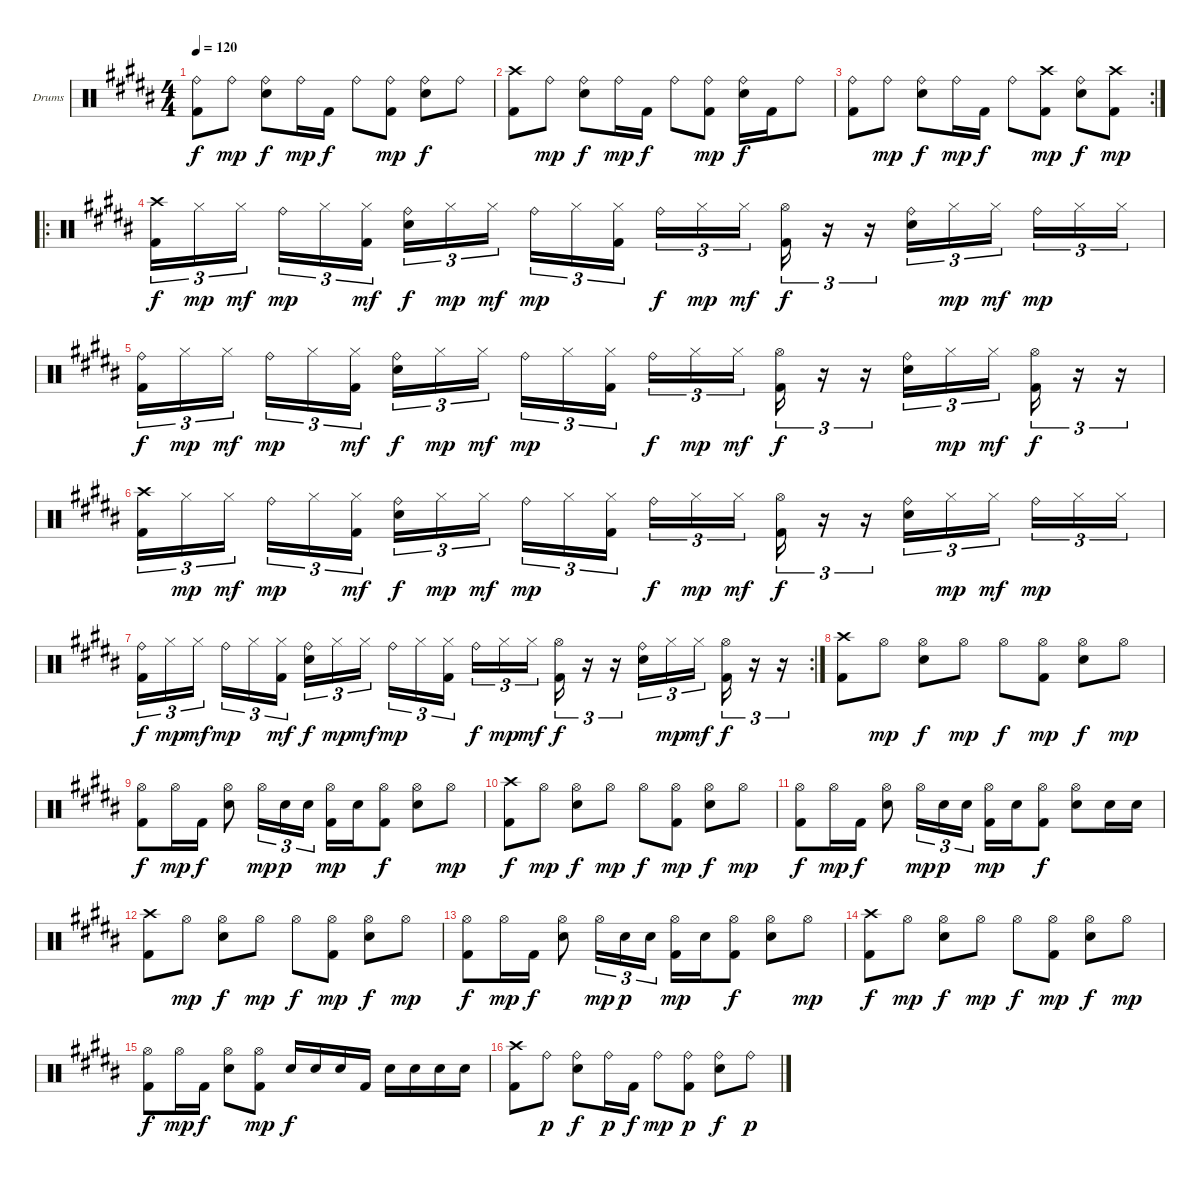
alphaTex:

\bracketExtendMode groupsimilarinstruments
\firstSystemTrackNameOrientation horizontal
\otherSystemsTrackNameOrientation horizontal
\track ("Drumkit" "Drums") {instrument percussion}
\staff {score}
\articulation defaults
\ts (4 4)
\tempo 120
\clef neutral
\ks g#minor
("Ride (bell)"{acc forcenatural} "Kick (hit) 2"{acc forcenatural}).8{dy f} "Ride (bell)"{acc forcenatural}.8{dy mp} ("Ride (bell)"{acc forcenatural} "Snare (hit) 2"{acc forcenatural}).8{dy f} "Ride (bell)"{acc forcenatural}.16{dy mp} "Kick (hit) 2"{acc forcenatural}.16{dy f} "Ride (bell)"{acc forcenatural}.8 ("Ride (bell)"{acc forcenatural} "Kick (hit) 2"{acc forcenatural}).8{dy mp} ("Ride (bell)"{acc forcenatural} "Snare (hit) 2"{acc forcenatural}).8{dy f} "Ride (bell)"{acc forcenatural}.8 |
("Crash high (hit)"{acc forcenatural} "Kick (hit) 2"{acc forcenatural}).8 "Ride (bell)"{acc forcenatural}.8{dy mp} ("Ride (bell)"{acc forcenatural} "Snare (hit) 2"{acc forcenatural}).8{dy f} "Ride (bell)"{acc forcenatural}.16{dy mp} "Kick (hit) 2"{acc forcenatural}.16{dy f} "Ride (bell)"{acc forcenatural}.8 ("Ride (bell)"{acc forcenatural} "Kick (hit) 2"{acc forcenatural}).8{dy mp} ("Ride (bell)"{acc forcenatural} "Snare (hit) 2"{acc forcenatural}).16{dy f} "Kick (hit) 2"{acc forcenatural}.16 "Ride (bell)"{acc forcenatural}.8 |
\rc 2
("Ride (bell)"{acc forcenatural} "Kick (hit) 2"{acc forcenatural}).8 "Ride (bell)"{acc forcenatural}.8{dy mp} ("Ride (bell)"{acc forcenatural} "Snare (hit) 2"{acc forcenatural}).8{dy f} "Ride (bell)"{acc forcenatural}.16{dy mp} "Kick (hit) 2"{acc forcenatural}.16{dy f} "Ride (bell)"{acc forcenatural}.8 ("Crash high (hit)"{acc forcenatural} "Kick (hit) 2"{acc forcenatural}).8{dy mp} ("Ride (bell)"{acc forcenatural} "Snare (hit) 2"{acc forcenatural}).8{dy f} ("Crash high (hit)"{acc forcenatural} "Kick (hit) 2"{acc forcenatural}).8{dy mp} |
\ro
("Crash high (hit)"{acc forcenatural} "Kick (hit) 2"{acc forcenatural}).16{tu (3 2) dy f} "Hi-Hat (closed)"{acc forcenatural}.16{tu (3 2) dy mp} "Hi-Hat (closed)"{acc forcenatural}.16{tu (3 2) dy mf} "Ride (bell)"{acc forcenatural}.16{tu (3 2) dy mp} "Hi-Hat (closed)"{acc forcenatural}.16{tu (3 2)} ("Hi-Hat (closed)"{acc forcenatural} "Kick (hit) 2"{acc forcenatural}).16{tu (3 2) dy mf} ("Ride (bell)"{acc forcenatural} "Snare (hit) 2"{acc forcenatural}).16{tu (3 2) dy f} "Hi-Hat (closed)"{acc forcenatural}.16{tu (3 2) dy mp} "Hi-Hat (closed)"{acc forcenatural}.16{tu (3 2) dy mf} "Ride (bell)"{acc forcenatural}.16{tu (3 2) dy mp} "Hi-Hat (closed)"{acc forcenatural}.16{tu (3 2)} ("Hi-Hat (closed)"{acc forcenatural} "Kick (hit) 2"{acc forcenatural}).16{tu (3 2)} "Ride (bell)"{acc forcenatural}.16{tu (3 2) dy f} "Hi-Hat (closed)"{acc forcenatural}.16{tu (3 2) dy mp} "Hi-Hat (closed)"{acc forcenatural}.16{tu (3 2) dy mf} ("Hi-Hat (open)"{acc forcenatural} "Kick (hit) 2"{acc forcenatural}).16{tu (3 2) dy f} r.16{tu (3 2)} r.16{tu (3 2)} ("Ride (bell)"{acc forcenatural} "Snare (hit) 2"{acc forcenatural}).16{tu (3 2)} "Hi-Hat (closed)"{acc forcenatural}.16{tu (3 2) dy mp} "Hi-Hat (closed)"{acc forcenatural}.16{tu (3 2) dy mf} "Ride (bell)"{acc forcenatural}.16{tu (3 2) dy mp} "Hi-Hat (closed)"{acc forcenatural}.16{tu (3 2)} "Hi-Hat (closed)"{acc forcenatural}.16{tu (3 2)} |
("Ride (bell)"{acc forcenatural} "Kick (hit) 2"{acc forcenatural}).16{tu (3 2) dy f} "Hi-Hat (closed)"{acc forcenatural}.16{tu (3 2) dy mp} "Hi-Hat (closed)"{acc forcenatural}.16{tu (3 2) dy mf} "Ride (bell)"{acc forcenatural}.16{tu (3 2) dy mp} "Hi-Hat (closed)"{acc forcenatural}.16{tu (3 2)} ("Hi-Hat (closed)"{acc forcenatural} "Kick (hit) 2"{acc forcenatural}).16{tu (3 2) dy mf} ("Ride (bell)"{acc forcenatural} "Snare (hit) 2"{acc forcenatural}).16{tu (3 2) dy f} "Hi-Hat (closed)"{acc forcenatural}.16{tu (3 2) dy mp} "Hi-Hat (closed)"{acc forcenatural}.16{tu (3 2) dy mf} "Ride (bell)"{acc forcenatural}.16{tu (3 2) dy mp} "Hi-Hat (closed)"{acc forcenatural}.16{tu (3 2)} ("Hi-Hat (closed)"{acc forcenatural} "Kick (hit) 2"{acc forcenatural}).16{tu (3 2)} "Ride (bell)"{acc forcenatural}.16{tu (3 2) dy f} "Hi-Hat (closed)"{acc forcenatural}.16{tu (3 2) dy mp} "Hi-Hat (closed)"{acc forcenatural}.16{tu (3 2) dy mf} ("Hi-Hat (open)"{acc forcenatural} "Kick (hit) 2"{acc forcenatural}).16{tu (3 2) dy f} r.16{tu (3 2)} r.16{tu (3 2)} ("Ride (bell)"{acc forcenatural} "Snare (hit) 2"{acc forcenatural}).16{tu (3 2)} "Hi-Hat (closed)"{acc forcenatural}.16{tu (3 2) dy mp} "Hi-Hat (closed)"{acc forcenatural}.16{tu (3 2) dy mf} ("Hi-Hat (open)"{acc forcenatural} "Kick (hit) 2"{acc forcenatural}).16{tu (3 2) dy f} r.16{tu (3 2)} r.16{tu (3 2)} |
("Crash high (hit)"{acc forcenatural} "Kick (hit) 2"{acc forcenatural}).16{tu (3 2)} "Hi-Hat (closed)"{acc forcenatural}.16{tu (3 2) dy mp} "Hi-Hat (closed)"{acc forcenatural}.16{tu (3 2) dy mf} "Ride (bell)"{acc forcenatural}.16{tu (3 2) dy mp} "Hi-Hat (closed)"{acc forcenatural}.16{tu (3 2)} ("Hi-Hat (closed)"{acc forcenatural} "Kick (hit) 2"{acc forcenatural}).16{tu (3 2) dy mf} ("Ride (bell)"{acc forcenatural} "Snare (hit) 2"{acc forcenatural}).16{tu (3 2) dy f} "Hi-Hat (closed)"{acc forcenatural}.16{tu (3 2) dy mp} "Hi-Hat (closed)"{acc forcenatural}.16{tu (3 2) dy mf} "Ride (bell)"{acc forcenatural}.16{tu (3 2) dy mp} "Hi-Hat (closed)"{acc forcenatural}.16{tu (3 2)} ("Hi-Hat (closed)"{acc forcenatural} "Kick (hit) 2"{acc forcenatural}).16{tu (3 2)} "Ride (bell)"{acc forcenatural}.16{tu (3 2) dy f} "Hi-Hat (closed)"{acc forcenatural}.16{tu (3 2) dy mp} "Hi-Hat (closed)"{acc forcenatural}.16{tu (3 2) dy mf} ("Hi-Hat (open)"{acc forcenatural} "Kick (hit) 2"{acc forcenatural}).16{tu (3 2) dy f} r.16{tu (3 2)} r.16{tu (3 2)} ("Ride (bell)"{acc forcenatural} "Snare (hit) 2"{acc forcenatural}).16{tu (3 2)} "Hi-Hat (closed)"{acc forcenatural}.16{tu (3 2) dy mp} "Hi-Hat (closed)"{acc forcenatural}.16{tu (3 2) dy mf} "Ride (bell)"{acc forcenatural}.16{tu (3 2) dy mp} "Hi-Hat (closed)"{acc forcenatural}.16{tu (3 2)} "Hi-Hat (closed)"{acc forcenatural}.16{tu (3 2)} |
\rc 2
("Ride (bell)"{acc forcenatural} "Kick (hit) 2"{acc forcenatural}).16{tu (3 2) dy f} "Hi-Hat (closed)"{acc forcenatural}.16{tu (3 2) dy mp} "Hi-Hat (closed)"{acc forcenatural}.16{tu (3 2) dy mf} "Ride (bell)"{acc forcenatural}.16{tu (3 2) dy mp} "Hi-Hat (closed)"{acc forcenatural}.16{tu (3 2)} ("Hi-Hat (closed)"{acc forcenatural} "Kick (hit) 2"{acc forcenatural}).16{tu (3 2) dy mf} ("Ride (bell)"{acc forcenatural} "Snare (hit) 2"{acc forcenatural}).16{tu (3 2) dy f} "Hi-Hat (closed)"{acc forcenatural}.16{tu (3 2) dy mp} "Hi-Hat (closed)"{acc forcenatural}.16{tu (3 2) dy mf} "Ride (bell)"{acc forcenatural}.16{tu (3 2) dy mp} "Hi-Hat (closed)"{acc forcenatural}.16{tu (3 2)} ("Hi-Hat (closed)"{acc forcenatural} "Kick (hit) 2"{acc forcenatural}).16{tu (3 2)} "Ride (bell)"{acc forcenatural}.16{tu (3 2) dy f} "Hi-Hat (closed)"{acc forcenatural}.16{tu (3 2) dy mp} "Hi-Hat (closed)"{acc forcenatural}.16{tu (3 2) dy mf} ("Hi-Hat (open)"{acc forcenatural} "Kick (hit) 2"{acc forcenatural}).16{tu (3 2) dy f} r.16{tu (3 2)} r.16{tu (3 2)} ("Ride (bell)"{acc forcenatural} "Snare (hit) 2"{acc forcenatural}).16{tu (3 2)} "Hi-Hat (closed)"{acc forcenatural}.16{tu (3 2) dy mp} "Hi-Hat (closed)"{acc forcenatural}.16{tu (3 2) dy mf} ("Hi-Hat (open)"{acc forcenatural} "Kick (hit) 2"{acc forcenatural}).16{tu (3 2) dy f} r.16{tu (3 2)} r.16{tu (3 2)} |
("Crash high (hit)"{acc forcenatural} "Kick (hit) 2"{acc forcenatural}).8 "Hi-Hat (open)"{acc forcenatural}.8{dy mp} ("Hi-Hat (open)"{acc forcenatural} "Snare (hit) 2"{acc forcenatural}).8{dy f} "Hi-Hat (open)"{acc forcenatural}.8{dy mp} "Hi-Hat (open)"{acc forcenatural}.8{dy f} ("Hi-Hat (open)"{acc forcenatural} "Kick (hit) 2"{acc forcenatural}).8{dy mp} ("Hi-Hat (open)"{acc forcenatural} "Snare (hit) 2"{acc forcenatural}).8{dy f} "Hi-Hat (open)"{acc forcenatural}.8{dy mp} |
("Hi-Hat (open)"{acc forcenatural} "Kick (hit) 2"{acc forcenatural}).8{dy f} "Hi-Hat (open)"{acc forcenatural}.16{dy mp} "Kick (hit) 2"{acc forcenatural}.16{dy f} ("Hi-Hat (open)"{acc forcenatural} "Snare (hit) 2"{acc forcenatural}).8 "Hi-Hat (open)"{acc forcenatural}.16{tu (3 2) dy mp} "Snare (hit) 2"{acc forcenatural}.16{tu (3 2) dy p} "Snare (hit) 2"{acc forcenatural}.16{tu (3 2)} ("Hi-Hat (open)"{acc forcenatural} "Kick (hit) 2"{acc forcenatural}).16{dy mp} "Snare (hit) 2"{acc forcenatural}.16 ("Hi-Hat (open)"{acc forcenatural} "Kick (hit) 2"{acc forcenatural}).8{dy f} ("Hi-Hat (open)"{acc forcenatural} "Snare (hit) 2"{acc forcenatural}).8 "Hi-Hat (open)"{acc forcenatural}.8{dy mp} |
("Crash high (hit)"{acc forcenatural} "Kick (hit) 2"{acc forcenatural}).8{dy f} "Hi-Hat (open)"{acc forcenatural}.8{dy mp} ("Hi-Hat (open)"{acc forcenatural} "Snare (hit) 2"{acc forcenatural}).8{dy f} "Hi-Hat (open)"{acc forcenatural}.8{dy mp} "Hi-Hat (open)"{acc forcenatural}.8{dy f} ("Hi-Hat (open)"{acc forcenatural} "Kick (hit) 2"{acc forcenatural}).8{dy mp} ("Hi-Hat (open)"{acc forcenatural} "Snare (hit) 2"{acc forcenatural}).8{dy f} "Hi-Hat (open)"{acc forcenatural}.8{dy mp} |
("Hi-Hat (open)"{acc forcenatural} "Kick (hit) 2"{acc forcenatural}).8{dy f} "Hi-Hat (open)"{acc forcenatural}.16{dy mp} "Kick (hit) 2"{acc forcenatural}.16{dy f} ("Hi-Hat (open)"{acc forcenatural} "Snare (hit) 2"{acc forcenatural}).8 "Hi-Hat (open)"{acc forcenatural}.16{tu (3 2) dy mp} "Snare (hit) 2"{acc forcenatural}.16{tu (3 2) dy p} "Snare (hit) 2"{acc forcenatural}.16{tu (3 2)} ("Hi-Hat (open)"{acc forcenatural} "Kick (hit) 2"{acc forcenatural}).16{dy mp} "Snare (hit) 2"{acc forcenatural}.16 ("Hi-Hat (open)"{acc forcenatural} "Kick (hit) 2"{acc forcenatural}).8{dy f} ("Hi-Hat (open)"{acc forcenatural} "Snare (hit) 2"{acc forcenatural}).8 "Snare (hit) 2"{acc forcenatural}.16 "Snare (hit) 2"{acc forcenatural}.16 |
("Crash high (hit)"{acc forcenatural} "Kick (hit) 2"{acc forcenatural}).8 "Hi-Hat (open)"{acc forcenatural}.8{dy mp} ("Hi-Hat (open)"{acc forcenatural} "Snare (hit) 2"{acc forcenatural}).8{dy f} "Hi-Hat (open)"{acc forcenatural}.8{dy mp} "Hi-Hat (open)"{acc forcenatural}.8{dy f} ("Hi-Hat (open)"{acc forcenatural} "Kick (hit) 2"{acc forcenatural}).8{dy mp} ("Hi-Hat (open)"{acc forcenatural} "Snare (hit) 2"{acc forcenatural}).8{dy f} "Hi-Hat (open)"{acc forcenatural}.8{dy mp} |
("Hi-Hat (open)"{acc forcenatural} "Kick (hit) 2"{acc forcenatural}).8{dy f} "Hi-Hat (open)"{acc forcenatural}.16{dy mp} "Kick (hit) 2"{acc forcenatural}.16{dy f} ("Hi-Hat (open)"{acc forcenatural} "Snare (hit) 2"{acc forcenatural}).8 "Hi-Hat (open)"{acc forcenatural}.16{tu (3 2) dy mp} "Snare (hit) 2"{acc forcenatural}.16{tu (3 2) dy p} "Snare (hit) 2"{acc forcenatural}.16{tu (3 2)} ("Hi-Hat (open)"{acc forcenatural} "Kick (hit) 2"{acc forcenatural}).16{dy mp} "Snare (hit) 2"{acc forcenatural}.16 ("Hi-Hat (open)"{acc forcenatural} "Kick (hit) 2"{acc forcenatural}).8{dy f} ("Hi-Hat (open)"{acc forcenatural} "Snare (hit) 2"{acc forcenatural}).8 "Hi-Hat (open)"{acc forcenatural}.8{dy mp} |
("Crash high (hit)"{acc forcenatural} "Kick (hit) 2"{acc forcenatural}).8{dy f} "Hi-Hat (open)"{acc forcenatural}.8{dy mp} ("Hi-Hat (open)"{acc forcenatural} "Snare (hit) 2"{acc forcenatural}).8{dy f} "Hi-Hat (open)"{acc forcenatural}.8{dy mp} "Hi-Hat (open)"{acc forcenatural}.8{dy f} ("Hi-Hat (open)"{acc forcenatural} "Kick (hit) 2"{acc forcenatural}).8{dy mp} ("Hi-Hat (open)"{acc forcenatural} "Snare (hit) 2"{acc forcenatural}).8{dy f} "Hi-Hat (open)"{acc forcenatural}.8{dy mp} |
("Hi-Hat (open)"{acc forcenatural} "Kick (hit) 2"{acc forcenatural}).8{dy f} "Hi-Hat (open)"{acc forcenatural}.16{dy mp} "Kick (hit) 2"{acc forcenatural}.16{dy f} ("Hi-Hat (open)"{acc forcenatural} "Snare (hit) 2"{acc forcenatural}).8 ("Hi-Hat (open)"{acc forcenatural} "Kick (hit) 2"{acc forcenatural}).8{dy mp} "Snare (hit) 2"{acc forcenatural}.16{dy f} "Snare (hit) 2"{acc forcenatural}.16 "Snare (hit) 2"{acc forcenatural}.16 "Kick (hit) 2"{acc forcenatural}.16 "Snare (hit) 2"{acc forcenatural}.16 "Snare (hit) 2"{acc forcenatural}.16 "Snare (hit) 2"{acc forcenatural}.16 "Snare (hit) 2"{acc forcenatural}.16 |
("Crash high (hit)"{acc forcenatural} "Kick (hit) 2"{acc forcenatural}).8 "Ride (bell)"{acc forcenatural}.8{dy p} ("Ride (bell)"{acc forcenatural} "Snare (hit) 2"{acc forcenatural}).8{dy f} "Ride (bell)"{acc forcenatural}.16{dy p} "Kick (hit) 2"{acc forcenatural}.16{dy f} "Ride (bell)"{acc forcenatural}.8{dy mp} ("Ride (bell)"{acc forcenatural} "Kick (hit) 2"{acc forcenatural}).8{dy p} ("Ride (bell)"{acc forcenatural} "Snare (hit) 2"{acc forcenatural}).8{dy f} "Ride (bell)"{acc forcenatural}.8{dy p}
